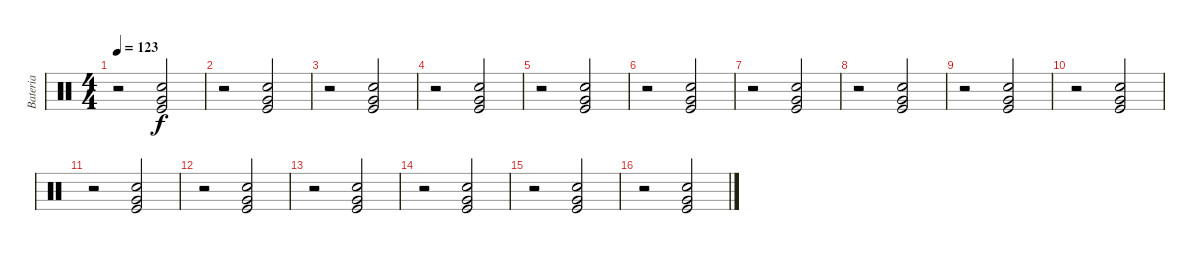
\track ("Bateria" "Bateria") {instrument percussion}
\staff {score}
\articulation defaults
\ts (4 4)
\tempo 123
\clef neutral
\ks c
r.2{dy f} ("Snare (hit) 2" "Very Low Tom (hit)" "Kick (hit)").2 |
r.2 ("Snare (hit) 2" "Very Low Tom (hit)" "Kick (hit)").2 |
r.2 ("Snare (hit) 2" "Very Low Tom (hit)" "Kick (hit)").2 |
r.2 ("Snare (hit) 2" "Very Low Tom (hit)" "Kick (hit)").2 |
r.2 ("Snare (hit) 2" "Very Low Tom (hit)" "Kick (hit)").2 |
r.2 ("Snare (hit) 2" "Very Low Tom (hit)" "Kick (hit)").2 |
r.2 ("Snare (hit) 2" "Very Low Tom (hit)" "Kick (hit)").2 |
r.2 ("Snare (hit) 2" "Very Low Tom (hit)" "Kick (hit)").2 |
r.2 ("Snare (hit) 2" "Very Low Tom (hit)" "Kick (hit)").2 |
r.2 ("Snare (hit) 2" "Very Low Tom (hit)" "Kick (hit)").2 |
r.2 ("Snare (hit) 2" "Very Low Tom (hit)" "Kick (hit)").2 |
r.2 ("Snare (hit) 2" "Very Low Tom (hit)" "Kick (hit)").2 |
r.2 ("Snare (hit) 2" "Very Low Tom (hit)" "Kick (hit)").2 |
r.2 ("Snare (hit) 2" "Very Low Tom (hit)" "Kick (hit)").2 |
r.2 ("Snare (hit) 2" "Very Low Tom (hit)" "Kick (hit)").2 |
r.2 ("Snare (hit) 2" "Very Low Tom (hit)" "Kick (hit)").2
